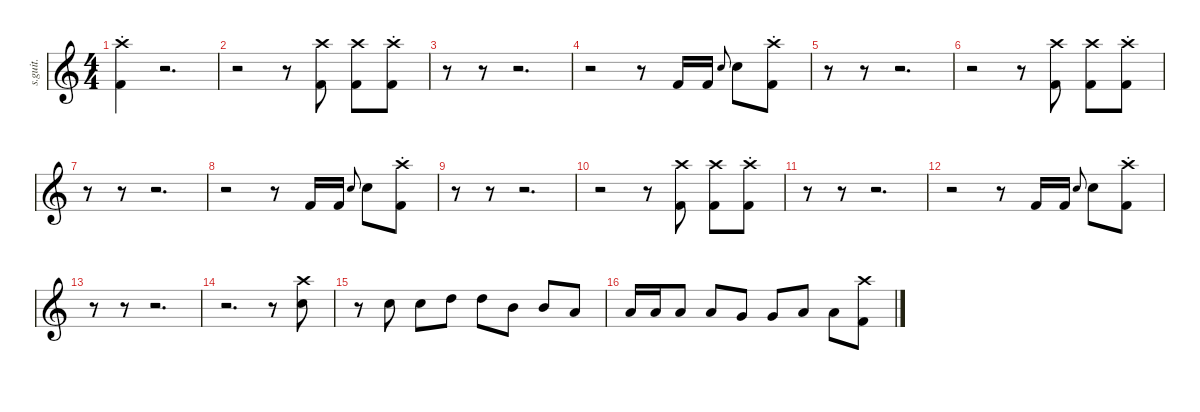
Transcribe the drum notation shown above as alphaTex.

\defaultSystemsLayout 4
\hideDynamics
\bracketExtendMode nobrackets
\track ("Nick Menza (Drums)" "s.guit.") {instrument percussion}
\staff {score}
\articulation defaults
\ts (4 4)
\beaming (8 2 2 2 2)
\tempo (196 hide)
\clef g2
\ks c
("Crash high (choke)" "Kick (hit) 2").4{lyrics (0 "") lyrics (1 "") lyrics (2 "") lyrics (3 "") lyrics (4 "") dy f} r.2{d} |
r.2 r.8 ("Crash high (hit)" "Kick (hit) 2").8{lyrics (0 "") lyrics (1 "") lyrics (2 "") lyrics (3 "") lyrics (4 "")} ("Crash high (hit)" "Kick (hit) 2").8{lyrics (0 "") lyrics (1 "") lyrics (2 "") lyrics (3 "") lyrics (4 "")} ("Crash high (choke)" "Kick (hit) 2").8{lyrics (0 "") lyrics (1 "") lyrics (2 "") lyrics (3 "") lyrics (4 "")} |
r.8 r.8 r.2{d} |
r.2 r.8 "Kick (hit) 2".16{lyrics (0 "") lyrics (1 "") lyrics (2 "") lyrics (3 "") lyrics (4 "") dy fff} "Kick (hit) 2".16{lyrics (0 "") lyrics (1 "") lyrics (2 "") lyrics (3 "") lyrics (4 "")} "Snare (hit) 2".8{lyrics (0 "") lyrics (1 "") lyrics (2 "") lyrics (3 "") lyrics (4 "") gr onbeat} "Snare (hit) 2".8{lyrics (0 "") lyrics (1 "") lyrics (2 "") lyrics (3 "") lyrics (4 "") dy f} ("Crash high (choke)" "Kick (hit) 2").8{lyrics (0 "") lyrics (1 "") lyrics (2 "") lyrics (3 "") lyrics (4 "")} |
r.8 r.8 r.2{d} |
r.2 r.8 ("Crash high (hit)" "Kick (hit) 2").8{lyrics (0 "") lyrics (1 "") lyrics (2 "") lyrics (3 "") lyrics (4 "")} ("Crash high (hit)" "Kick (hit) 2").8{lyrics (0 "") lyrics (1 "") lyrics (2 "") lyrics (3 "") lyrics (4 "")} ("Crash high (choke)" "Kick (hit) 2").8{lyrics (0 "") lyrics (1 "") lyrics (2 "") lyrics (3 "") lyrics (4 "")} |
r.8 r.8 r.2{d} |
r.2 r.8 "Kick (hit) 2".16{lyrics (0 "") lyrics (1 "") lyrics (2 "") lyrics (3 "") lyrics (4 "") dy fff} "Kick (hit) 2".16{lyrics (0 "") lyrics (1 "") lyrics (2 "") lyrics (3 "") lyrics (4 "")} "Snare (hit) 2".8{lyrics (0 "") lyrics (1 "") lyrics (2 "") lyrics (3 "") lyrics (4 "") gr onbeat} "Snare (hit) 2".8{lyrics (0 "") lyrics (1 "") lyrics (2 "") lyrics (3 "") lyrics (4 "") dy f} ("Crash high (choke)" "Kick (hit) 2").8{lyrics (0 "") lyrics (1 "") lyrics (2 "") lyrics (3 "") lyrics (4 "")} |
r.8 r.8 r.2{d} |
r.2 r.8 ("Crash high (hit)" "Kick (hit) 2").8{lyrics (0 "") lyrics (1 "") lyrics (2 "") lyrics (3 "") lyrics (4 "")} ("Crash high (hit)" "Kick (hit) 2").8{lyrics (0 "") lyrics (1 "") lyrics (2 "") lyrics (3 "") lyrics (4 "")} ("Crash high (choke)" "Kick (hit) 2").8{lyrics (0 "") lyrics (1 "") lyrics (2 "") lyrics (3 "") lyrics (4 "")} |
r.8 r.8 r.2{d} |
r.2 r.8 "Kick (hit) 2".16{lyrics (0 "") lyrics (1 "") lyrics (2 "") lyrics (3 "") lyrics (4 "") dy fff} "Kick (hit) 2".16{lyrics (0 "") lyrics (1 "") lyrics (2 "") lyrics (3 "") lyrics (4 "")} "Snare (hit) 2".8{lyrics (0 "") lyrics (1 "") lyrics (2 "") lyrics (3 "") lyrics (4 "") gr onbeat} "Snare (hit) 2".8{lyrics (0 "") lyrics (1 "") lyrics (2 "") lyrics (3 "") lyrics (4 "") dy f} ("Crash high (choke)" "Kick (hit) 2").8{lyrics (0 "") lyrics (1 "") lyrics (2 "") lyrics (3 "") lyrics (4 "")} |
r.8 r.8 r.2{d} |
r.2{d} r.8 ("Crash high (hit)" "Snare (hit) 2").8{lyrics (0 "") lyrics (1 "") lyrics (2 "") lyrics (3 "") lyrics (4 "")} |
r.8 "Snare (hit) 2".8{lyrics (0 "") lyrics (1 "") lyrics (2 "") lyrics (3 "") lyrics (4 "")} "Snare (hit) 2".8{lyrics (0 "") lyrics (1 "") lyrics (2 "") lyrics (3 "") lyrics (4 "")} "High Tom (hit)".8{lyrics (0 "") lyrics (1 "") lyrics (2 "") lyrics (3 "") lyrics (4 "") dy fff} "High Tom (hit)".8{lyrics (0 "") lyrics (1 "") lyrics (2 "") lyrics (3 "") lyrics (4 "")} "Mid Tom (hit)".8{lyrics (0 "") lyrics (1 "") lyrics (2 "") lyrics (3 "") lyrics (4 "")} "Mid Tom (hit)".8{lyrics (0 "") lyrics (1 "") lyrics (2 "") lyrics (3 "") lyrics (4 "")} "Low Tom (hit)".8{lyrics (0 "") lyrics (1 "") lyrics (2 "") lyrics (3 "") lyrics (4 "")} |
"Low Tom (hit)".16{lyrics (0 "") lyrics (1 "") lyrics (2 "") lyrics (3 "") lyrics (4 "")} "Low Tom (hit)".16{lyrics (0 "") lyrics (1 "") lyrics (2 "") lyrics (3 "") lyrics (4 "")} "Low Tom (hit)".8{lyrics (0 "") lyrics (1 "") lyrics (2 "") lyrics (3 "") lyrics (4 "")} "Low Tom (hit)".8{lyrics (0 "") lyrics (1 "") lyrics (2 "") lyrics (3 "") lyrics (4 "")} "Very Low Tom (hit)".8{lyrics (0 "") lyrics (1 "") lyrics (2 "") lyrics (3 "") lyrics (4 "") dy f} "Very Low Tom (hit)".8{lyrics (0 "") lyrics (1 "") lyrics (2 "") lyrics (3 "") lyrics (4 "")} "Low Floor Tom (hit)".8{lyrics (0 "") lyrics (1 "") lyrics (2 "") lyrics (3 "") lyrics (4 "")} "Low Floor Tom (hit)".8{lyrics (0 "") lyrics (1 "") lyrics (2 "") lyrics (3 "") lyrics (4 "")} ("Crash high (hit)" "Kick (hit) 2").8{lyrics (0 "") lyrics (1 "") lyrics (2 "") lyrics (3 "") lyrics (4 "")}
